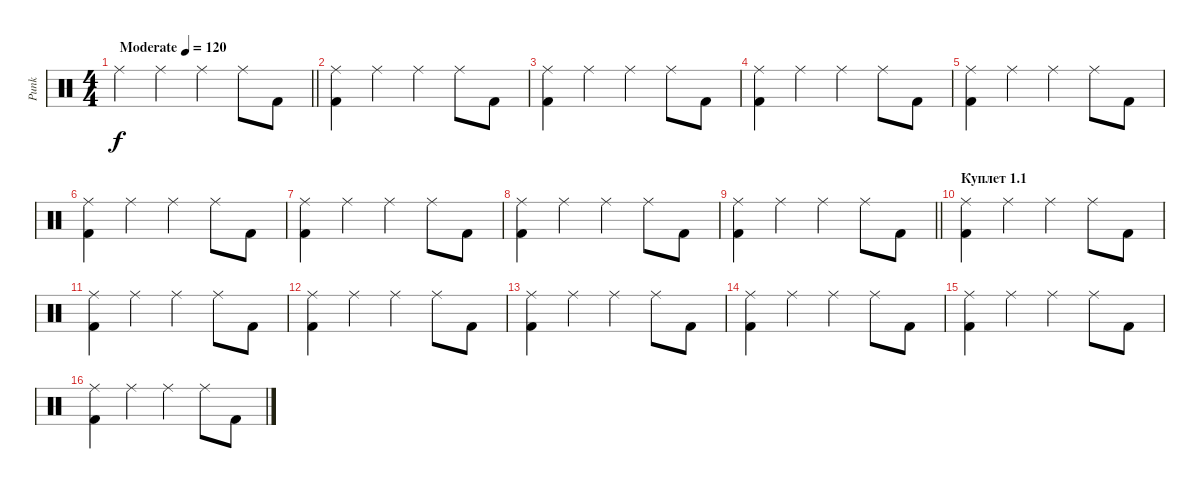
\track ("Punk" "Punk") {instrument percussion}
\staff {score}
\articulation defaults
\ts (4 4)
\tempo (120 "Moderate")
\clef neutral
\barLineRight lightlight
\ks c "Ride (middle)".4{dy f} "Ride (middle)".4 "Ride (middle)".4 "Ride (middle)".8 "Kick (hit) 2".8
|
("Ride (middle)" "Kick (hit) 2").4 "Ride (middle)".4 "Ride (middle)".4 "Ride (middle)".8 "Kick (hit) 2".8 |
("Ride (middle)" "Kick (hit) 2").4 "Ride (middle)".4 "Ride (middle)".4 "Ride (middle)".8 "Kick (hit) 2".8 |
("Ride (middle)" "Kick (hit) 2").4 "Ride (middle)".4 "Ride (middle)".4 "Ride (middle)".8 "Kick (hit) 2".8 |
("Ride (middle)" "Kick (hit) 2").4 "Ride (middle)".4 "Ride (middle)".4 "Ride (middle)".8 "Kick (hit) 2".8 |
("Ride (middle)" "Kick (hit) 2").4 "Ride (middle)".4 "Ride (middle)".4 "Ride (middle)".8 "Kick (hit) 2".8 |
("Ride (middle)" "Kick (hit) 2").4 "Ride (middle)".4 "Ride (middle)".4 "Ride (middle)".8 "Kick (hit) 2".8 |
("Ride (middle)" "Kick (hit) 2").4 "Ride (middle)".4 "Ride (middle)".4 "Ride (middle)".8 "Kick (hit) 2".8 |
\barLineRight lightlight
("Ride (middle)" "Kick (hit) 2").4 "Ride (middle)".4 "Ride (middle)".4 "Ride (middle)".8 "Kick (hit) 2".8 |
\section ("" "Куплет 1.1")
("Ride (middle)" "Kick (hit) 2").4 "Ride (middle)".4 "Ride (middle)".4 "Ride (middle)".8 "Kick (hit) 2".8 |
("Ride (middle)" "Kick (hit) 2").4 "Ride (middle)".4 "Ride (middle)".4 "Ride (middle)".8 "Kick (hit) 2".8 |
("Ride (middle)" "Kick (hit) 2").4 "Ride (middle)".4 "Ride (middle)".4 "Ride (middle)".8 "Kick (hit) 2".8 |
("Ride (middle)" "Kick (hit) 2").4 "Ride (middle)".4 "Ride (middle)".4 "Ride (middle)".8 "Kick (hit) 2".8 |
("Ride (middle)" "Kick (hit) 2").4 "Ride (middle)".4 "Ride (middle)".4 "Ride (middle)".8 "Kick (hit) 2".8 |
("Ride (middle)" "Kick (hit) 2").4 "Ride (middle)".4 "Ride (middle)".4 "Ride (middle)".8 "Kick (hit) 2".8 |
("Ride (middle)" "Kick (hit) 2").4 "Ride (middle)".4 "Ride (middle)".4 "Ride (middle)".8 "Kick (hit) 2".8
